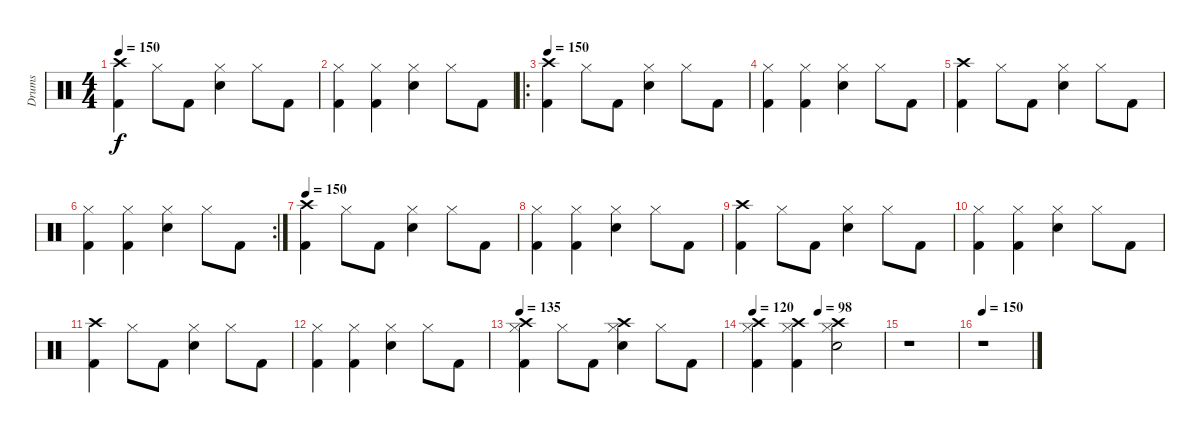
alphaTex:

\track ("Drums" "Drums") {instrument percussion}
\staff {score}
\articulation defaults
\ts (4 4)
\tempo 150
\clef neutral
\ks c
("Kick (hit) 2" "Crash high (hit)").4{dy f} "Hi-Hat (closed)".8 "Kick (hit) 2".8 ("Snare (hit) 2" "Hi-Hat (closed)").4 "Hi-Hat (closed)".8 "Kick (hit) 2".8 |
("Kick (hit) 2" "Hi-Hat (closed)").4 ("Kick (hit) 2" "Hi-Hat (closed)").4 ("Snare (hit) 2" "Hi-Hat (closed)").4 "Hi-Hat (closed)".8 "Kick (hit) 2".8 |
\ro
\tempo 150
("Kick (hit) 2" "Crash high (hit)").4 "Hi-Hat (closed)".8 "Kick (hit) 2".8 ("Snare (hit) 2" "Hi-Hat (closed)").4 "Hi-Hat (closed)".8 "Kick (hit) 2".8 |
("Kick (hit) 2" "Hi-Hat (closed)").4 ("Kick (hit) 2" "Hi-Hat (closed)").4 ("Snare (hit) 2" "Hi-Hat (closed)").4 "Hi-Hat (closed)".8 "Kick (hit) 2".8 |
("Kick (hit) 2" "Crash high (hit)").4 "Hi-Hat (closed)".8 "Kick (hit) 2".8 ("Snare (hit) 2" "Hi-Hat (closed)").4 "Hi-Hat (closed)".8 "Kick (hit) 2".8 |
\rc 2
("Kick (hit) 2" "Hi-Hat (closed)").4 ("Kick (hit) 2" "Hi-Hat (closed)").4 ("Snare (hit) 2" "Hi-Hat (closed)").4 "Hi-Hat (closed)".8 "Kick (hit) 2".8 |
\tempo 150
("Kick (hit) 2" "Crash high (hit)").4 "Hi-Hat (closed)".8 "Kick (hit) 2".8 ("Snare (hit) 2" "Hi-Hat (closed)").4 "Hi-Hat (closed)".8 "Kick (hit) 2".8 |
("Kick (hit) 2" "Hi-Hat (closed)").4 ("Kick (hit) 2" "Hi-Hat (closed)").4 ("Snare (hit) 2" "Hi-Hat (closed)").4 "Hi-Hat (closed)".8 "Kick (hit) 2".8 |
("Kick (hit) 2" "Crash high (hit)").4 "Hi-Hat (closed)".8 "Kick (hit) 2".8 ("Snare (hit) 2" "Hi-Hat (closed)").4 "Hi-Hat (closed)".8 "Kick (hit) 2".8 |
("Kick (hit) 2" "Hi-Hat (closed)").4 ("Kick (hit) 2" "Hi-Hat (closed)").4 ("Snare (hit) 2" "Hi-Hat (closed)").4 "Hi-Hat (closed)".8 "Kick (hit) 2".8 |
("Kick (hit) 2" "Crash high (hit)").4 "Hi-Hat (closed)".8 "Kick (hit) 2".8 ("Snare (hit) 2" "Hi-Hat (closed)").4 "Hi-Hat (closed)".8 "Kick (hit) 2".8 |
("Kick (hit) 2" "Hi-Hat (closed)").4 ("Kick (hit) 2" "Hi-Hat (closed)").4 ("Snare (hit) 2" "Hi-Hat (closed)").4 "Hi-Hat (closed)".8 "Kick (hit) 2".8 |
\tempo 135
("Kick (hit) 2" "Crash high (hit)" "Hi-Hat (closed)").4 "Hi-Hat (closed)".8 "Kick (hit) 2".8 ("Snare (hit) 2" "Hi-Hat (closed)" "Crash high (hit)").4 "Hi-Hat (closed)".8 "Kick (hit) 2".8 |
\tempo 120
\tempo (98 0.5)
("Kick (hit) 2" "Hi-Hat (closed)" "Crash high (hit)").4 ("Kick (hit) 2" "Hi-Hat (closed)" "Crash high (hit)").4 ("Snare (hit) 2" "Hi-Hat (closed)" "Crash high (hit)").2 |
r.1 |
\tempo 150
r.1
